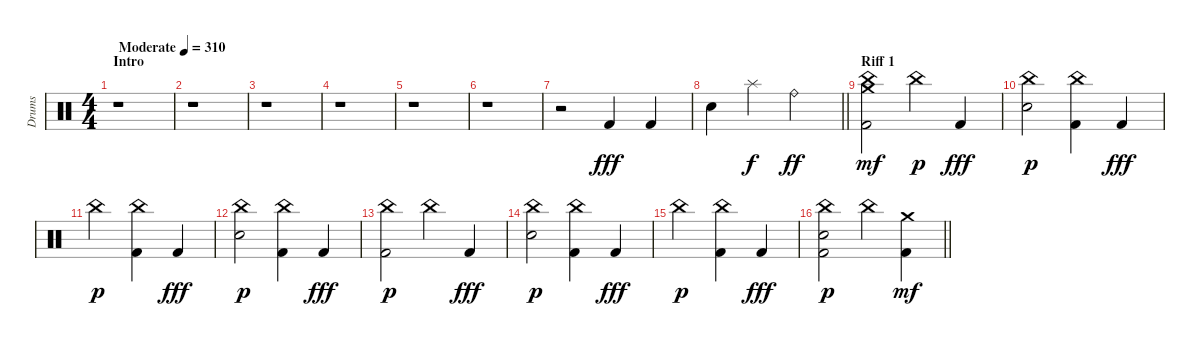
\track ("Drums" "Drums") {solo instrument percussion}
\staff {score}
\articulation defaults
\ts (4 4)
\section ("" "Intro")
\tempo (310 "Moderate")
\clef neutral
\ks c
r.1{dy fff} |
r.1 |
r.1 |
r.1 |
r.1 |
r.1 |
r.2 "Kick (hit) 2".4 "Kick (hit) 2".4 |
\barLineRight lightlight "Electric Snare (hit)".4 "Splash (hit)".4{dy f} "Ride (bell)".2{dy ff}
|
\section ("" "Riff 1")
("Kick (hit) 2" "China (hit)" "Crash medium (hit)").2{dy mf} "China (hit)".4{dy p} "Kick (hit) 2".4{dy fff} |
("Electric Snare (hit)" "China (hit)").2{dy p} ("Kick (hit) 2" "China (hit)").4 "Kick (hit) 2".4{dy fff} |
"China (hit)".2{dy p} ("Kick (hit) 2" "China (hit)").4 "Kick (hit) 2".4{dy fff} |
("Electric Snare (hit)" "China (hit)").2{dy p} ("Kick (hit) 2" "China (hit)").4 "Kick (hit) 2".4{dy fff} |
("Kick (hit) 2" "China (hit)").2{dy p} "China (hit)".4 "Kick (hit) 2".4{dy fff} |
("Electric Snare (hit)" "China (hit)").2{dy p} ("Kick (hit) 2" "China (hit)").4 "Kick (hit) 2".4{dy fff} |
"China (hit)".2{dy p} ("Kick (hit) 2" "China (hit)").4 "Kick (hit) 2".4{dy fff} |
\barLineRight lightlight
("Kick (hit) 2" "Electric Snare (hit)" "China (hit)").2{dy p} "China (hit)".4 ("Kick (hit) 2" "Crash medium (hit)").4{dy mf}
